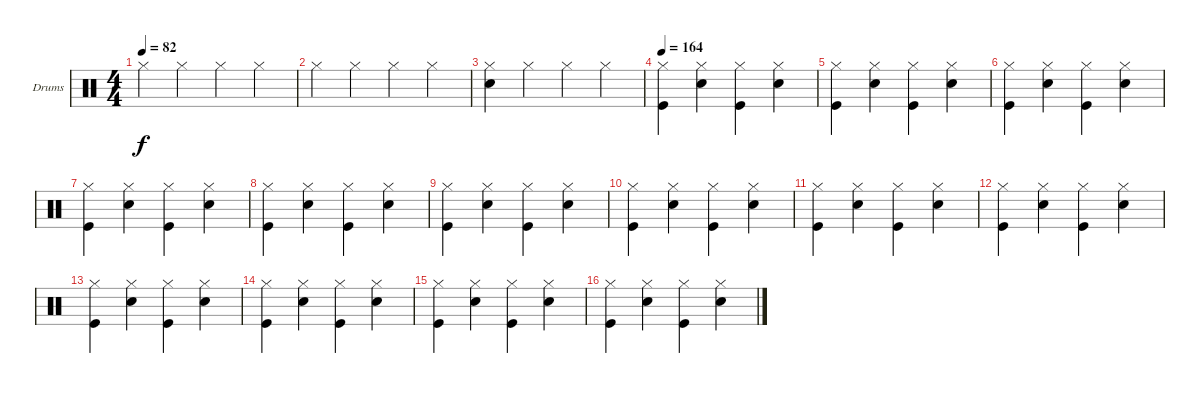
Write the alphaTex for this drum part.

\bracketExtendMode groupsimilarinstruments
\firstSystemTrackNameOrientation horizontal
\otherSystemsTrackNameOrientation horizontal
\track ("Drumkit" "Drums") {instrument percussion}
\staff {score}
\articulation defaults
\ts (4 4)
\tempo 82
\clef neutral
\ks c "Hi-Hat (closed)".4{dy f} "Hi-Hat (closed)".4 "Hi-Hat (closed)".4 "Hi-Hat (closed)".4
|
"Hi-Hat (closed)".4 "Hi-Hat (closed)".4 "Hi-Hat (closed)".4 "Hi-Hat (closed)".4 |
("Snare (hit) 2" "Hi-Hat (closed)").4 "Hi-Hat (closed)".4 "Hi-Hat (closed)".4 "Hi-Hat (closed)".4 |
\tempo 164
("Hi-Hat (closed)" "Kick (hit)").4 ("Hi-Hat (closed)" "Snare (hit) 2").4 ("Hi-Hat (closed)" "Kick (hit)").4 ("Hi-Hat (closed)" "Snare (hit) 2").4 |
("Hi-Hat (closed)" "Kick (hit)").4 ("Hi-Hat (closed)" "Snare (hit) 2").4 ("Hi-Hat (closed)" "Kick (hit)").4 ("Hi-Hat (closed)" "Snare (hit) 2").4 |
("Hi-Hat (closed)" "Kick (hit)").4 ("Hi-Hat (closed)" "Snare (hit) 2").4 ("Hi-Hat (closed)" "Kick (hit)").4 ("Hi-Hat (closed)" "Snare (hit) 2").4 |
("Hi-Hat (closed)" "Kick (hit)").4 ("Hi-Hat (closed)" "Snare (hit) 2").4 ("Hi-Hat (closed)" "Kick (hit)").4 ("Hi-Hat (closed)" "Snare (hit) 2").4 |
("Hi-Hat (closed)" "Kick (hit)").4 ("Hi-Hat (closed)" "Snare (hit) 2").4 ("Hi-Hat (closed)" "Kick (hit)").4 ("Hi-Hat (closed)" "Snare (hit) 2").4 |
("Hi-Hat (closed)" "Kick (hit)").4 ("Hi-Hat (closed)" "Snare (hit) 2").4 ("Hi-Hat (closed)" "Kick (hit)").4 ("Hi-Hat (closed)" "Snare (hit) 2").4 |
("Hi-Hat (closed)" "Kick (hit)").4 ("Hi-Hat (closed)" "Snare (hit) 2").4 ("Hi-Hat (closed)" "Kick (hit)").4 ("Hi-Hat (closed)" "Snare (hit) 2").4 |
("Hi-Hat (closed)" "Kick (hit)").4 ("Hi-Hat (closed)" "Snare (hit) 2").4 ("Hi-Hat (closed)" "Kick (hit)").4 ("Hi-Hat (closed)" "Snare (hit) 2").4 |
("Hi-Hat (closed)" "Kick (hit)").4 ("Hi-Hat (closed)" "Snare (hit) 2").4 ("Hi-Hat (closed)" "Kick (hit)").4 ("Hi-Hat (closed)" "Snare (hit) 2").4 |
("Hi-Hat (closed)" "Kick (hit)").4 ("Hi-Hat (closed)" "Snare (hit) 2").4 ("Hi-Hat (closed)" "Kick (hit)").4 ("Hi-Hat (closed)" "Snare (hit) 2").4 |
("Hi-Hat (closed)" "Kick (hit)").4 ("Hi-Hat (closed)" "Snare (hit) 2").4 ("Hi-Hat (closed)" "Kick (hit)").4 ("Hi-Hat (closed)" "Snare (hit) 2").4 |
("Hi-Hat (closed)" "Kick (hit)").4 ("Hi-Hat (closed)" "Snare (hit) 2").4 ("Hi-Hat (closed)" "Kick (hit)").4 ("Hi-Hat (closed)" "Snare (hit) 2").4 |
("Hi-Hat (closed)" "Kick (hit)").4 ("Hi-Hat (closed)" "Snare (hit) 2").4 ("Hi-Hat (closed)" "Kick (hit)").4 ("Hi-Hat (closed)" "Snare (hit) 2").4
